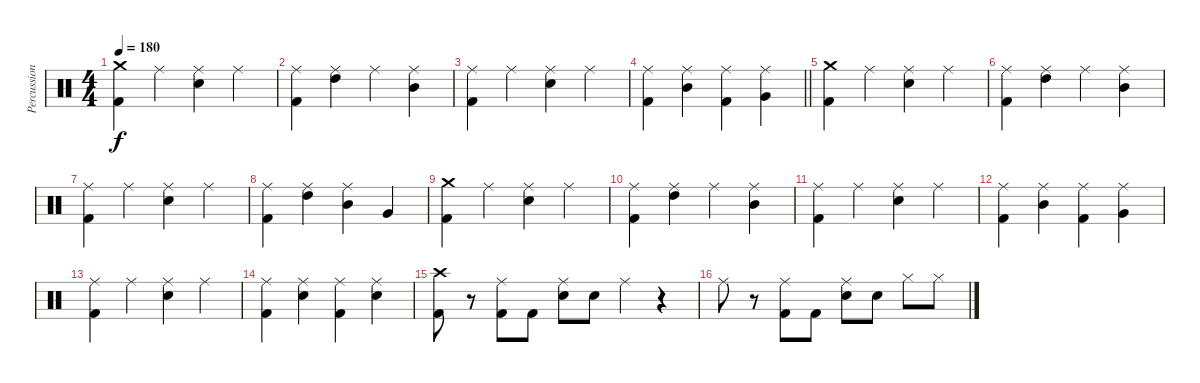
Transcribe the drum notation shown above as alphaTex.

\track ("Percussion" "Percussion") {instrument percussion}
\staff {score}
\articulation defaults
\ts (4 4)
\tempo 180
\clef neutral
\ks c
("Kick (hit) 2" "Crash medium (hit)").4{dy f} "Ride (middle)".4 ("Snare (hit) 2" "Ride (middle)").4 "Ride (middle)".4 |
("Kick (hit) 2" "Ride (middle)").4 ("High Tom (hit)" "Ride (middle)").4 "Ride (middle)".4 ("Mid Tom (hit)" "Ride (middle)").4 |
("Kick (hit) 2" "Ride (middle)").4 "Ride (middle)".4 ("Snare (hit) 2" "Ride (middle)").4 "Ride (middle)".4 |
\barLineRight lightlight
("Kick (hit) 2" "Ride (middle)").4 ("Mid Tom (hit)" "Ride (middle)").4 ("Kick (hit) 2" "Ride (middle)").4 ("Very Low Tom (hit)" "Ride (middle)").4 |
("Kick (hit) 2" "Crash medium (hit)").4 "Ride (middle)".4 ("Snare (hit) 2" "Ride (middle)").4 "Ride (middle)".4 |
("Kick (hit) 2" "Ride (middle)").4 ("High Tom (hit)" "Ride (middle)").4 "Ride (middle)".4 ("Mid Tom (hit)" "Ride (middle)").4 |
("Kick (hit) 2" "Ride (middle)").4 "Ride (middle)".4 ("Snare (hit) 2" "Ride (middle)").4 "Ride (middle)".4 |
("Kick (hit) 2" "Ride (middle)").4 ("High Tom (hit)" "Ride (middle)").4 ("Mid Tom (hit)" "Ride (middle)").4 "Very Low Tom (hit)".4 |
("Kick (hit) 2" "Crash medium (hit)").4 "Ride (middle)".4 ("Snare (hit) 2" "Ride (middle)").4 "Ride (middle)".4 |
("Kick (hit) 2" "Ride (middle)").4 ("High Tom (hit)" "Ride (middle)").4 "Ride (middle)".4 ("Mid Tom (hit)" "Ride (middle)").4 |
("Kick (hit) 2" "Ride (middle)").4 "Ride (middle)".4 ("Snare (hit) 2" "Ride (middle)").4 "Ride (middle)".4 |
("Kick (hit) 2" "Ride (middle)").4 ("Mid Tom (hit)" "Ride (middle)").4 ("Kick (hit) 2" "Ride (middle)").4 ("Very Low Tom (hit)" "Ride (middle)").4 |
("Kick (hit) 2" "Ride (middle)").4 "Ride (middle)".4 ("Snare (hit) 2" "Ride (middle)").4 "Ride (middle)".4 |
("Kick (hit) 2" "Ride (middle)").4 ("Snare (hit) 2" "Ride (middle)").4 ("Kick (hit) 2" "Ride (middle)").4 ("Snare (hit) 2" "Ride (middle)").4 |
("Kick (hit) 2" "Crash high (hit)").8 r.8 ("Ride (middle)" "Kick (hit) 2").8 "Kick (hit) 2".8 ("Ride (middle)" "Snare (hit) 2").8 "Snare (hit) 2".8 "Ride (middle)".4 r.4 |
"Ride (middle)".8 r.8 ("Ride (middle)" "Kick (hit) 2").8 "Kick (hit) 2".8 ("Ride (middle)" "Snare (hit) 2").8 "Snare (hit) 2".8 "Hi-Hat (closed)".8 "Hi-Hat (closed)".8
